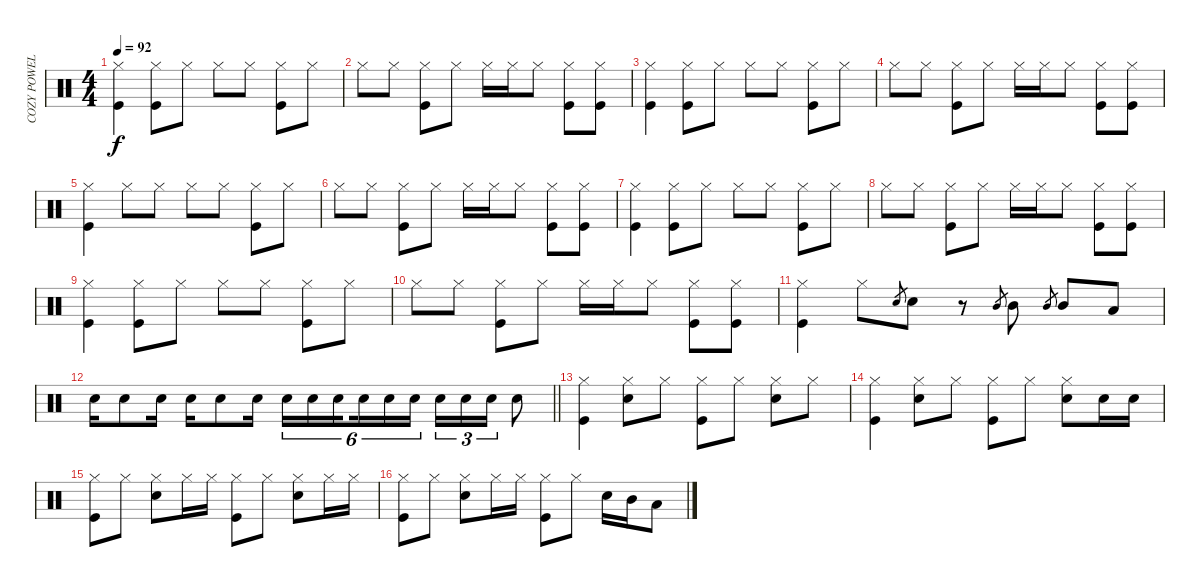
\track ("COZY POWELL" "COZY POWEL") {instrument percussion}
\staff {score}
\articulation defaults
\ts (4 4)
\tempo 92
\clef neutral
\ks c
("Hi-Hat (closed)" "Kick (hit)").4{dy f} ("Hi-Hat (closed)" "Kick (hit)").8 "Hi-Hat (closed)".8 "Hi-Hat (closed)".8 "Hi-Hat (closed)".8 ("Hi-Hat (closed)" "Kick (hit)").8 "Hi-Hat (closed)".8 |
"Hi-Hat (closed)".8 "Hi-Hat (closed)".8 ("Hi-Hat (closed)" "Kick (hit)").8 "Hi-Hat (closed)".8 "Hi-Hat (closed)".16 "Hi-Hat (closed)".16 "Hi-Hat (closed)".8 ("Hi-Hat (closed)" "Kick (hit)").8 ("Hi-Hat (closed)" "Kick (hit)").8 |
("Hi-Hat (closed)" "Kick (hit)").4 ("Hi-Hat (closed)" "Kick (hit)").8 "Hi-Hat (closed)".8 "Hi-Hat (closed)".8 "Hi-Hat (closed)".8 ("Hi-Hat (closed)" "Kick (hit)").8 "Hi-Hat (closed)".8 |
"Hi-Hat (closed)".8 "Hi-Hat (closed)".8 ("Hi-Hat (closed)" "Kick (hit)").8 "Hi-Hat (closed)".8 "Hi-Hat (closed)".16 "Hi-Hat (closed)".16 "Hi-Hat (closed)".8 ("Hi-Hat (closed)" "Kick (hit)").8 ("Hi-Hat (closed)" "Kick (hit)").8 |
("Hi-Hat (closed)" "Kick (hit)").4 "Hi-Hat (closed)".8 "Hi-Hat (closed)".8 "Hi-Hat (closed)".8 "Hi-Hat (closed)".8 ("Hi-Hat (closed)" "Kick (hit)").8 "Hi-Hat (closed)".8 |
"Hi-Hat (closed)".8 "Hi-Hat (closed)".8 ("Hi-Hat (closed)" "Kick (hit)").8 "Hi-Hat (closed)".8 "Hi-Hat (closed)".16 "Hi-Hat (closed)".16 "Hi-Hat (closed)".8 ("Hi-Hat (closed)" "Kick (hit)").8 ("Hi-Hat (closed)" "Kick (hit)").8 |
("Hi-Hat (closed)" "Kick (hit)").4 ("Hi-Hat (closed)" "Kick (hit)").8 "Hi-Hat (closed)".8 "Hi-Hat (closed)".8 "Hi-Hat (closed)".8 ("Hi-Hat (closed)" "Kick (hit)").8 "Hi-Hat (closed)".8 |
"Hi-Hat (closed)".8 "Hi-Hat (closed)".8 ("Hi-Hat (closed)" "Kick (hit)").8 "Hi-Hat (closed)".8 "Hi-Hat (closed)".16 "Hi-Hat (closed)".16 "Hi-Hat (closed)".8 ("Hi-Hat (closed)" "Kick (hit)").8 ("Hi-Hat (closed)" "Kick (hit)").8 |
("Hi-Hat (closed)" "Kick (hit)").4 ("Hi-Hat (closed)" "Kick (hit)").8 "Hi-Hat (closed)".8 "Hi-Hat (closed)".8 "Hi-Hat (closed)".8 ("Hi-Hat (closed)" "Kick (hit)").8 "Hi-Hat (closed)".8 |
"Hi-Hat (closed)".8 "Hi-Hat (closed)".8 ("Hi-Hat (closed)" "Kick (hit)").8 "Hi-Hat (closed)".8 "Hi-Hat (closed)".16 "Hi-Hat (closed)".16 "Hi-Hat (closed)".8 ("Hi-Hat (closed)" "Kick (hit)").8 ("Hi-Hat (closed)" "Kick (hit)").8 |
("Hi-Hat (closed)" "Kick (hit)").4 "Hi-Hat (closed)".8 "Snare (hit) 2".8{gr} "Snare (hit) 2".8 r.8 "Mid Tom (hit)".8{gr} "Mid Tom (hit)".8 "Mid Tom (hit)".8{gr} "Mid Tom (hit)".8 "Low Tom (hit)".8 |
\barLineRight lightlight "Snare (hit) 2".16 "Snare (hit) 2".8 "Snare (hit) 2".16 "Snare (hit) 2".16 "Snare (hit) 2".8 "Snare (hit) 2".16 "Snare (hit) 2".16{tu (6 4)} "Snare (hit) 2".16{tu (6 4)} "Snare (hit) 2".16{tu (6 4) beam splitsecondary} "Snare (hit) 2".16{tu (6 4)} "Snare (hit) 2".16{tu (6 4)} "Snare (hit) 2".16{tu (6 4)} "Snare (hit) 2".16{tu (3 2)} "Snare (hit) 2".16{tu (3 2)} "Snare (hit) 2".16{tu (3 2)} "Snare (hit) 2".8
|
("Hi-Hat (closed)" "Kick (hit)").4 ("Hi-Hat (closed)" "Snare (hit) 2").8 "Hi-Hat (closed)".8 ("Hi-Hat (closed)" "Kick (hit)").8 "Hi-Hat (closed)".8 ("Hi-Hat (closed)" "Snare (hit) 2").8 "Hi-Hat (closed)".8 |
("Hi-Hat (closed)" "Kick (hit)").4 ("Hi-Hat (closed)" "Snare (hit) 2").8 "Hi-Hat (closed)".8 ("Hi-Hat (closed)" "Kick (hit)").8 "Hi-Hat (closed)".8 ("Hi-Hat (closed)" "Snare (hit) 2").8 "Snare (hit) 2".16 "Snare (hit) 2".16 |
("Hi-Hat (closed)" "Kick (hit)").8 "Hi-Hat (closed)".8 ("Hi-Hat (closed)" "Snare (hit) 2").8 "Hi-Hat (closed)".16 "Hi-Hat (closed)".16 ("Hi-Hat (closed)" "Kick (hit)").8 "Hi-Hat (closed)".8 ("Hi-Hat (closed)" "Snare (hit) 2").8 "Hi-Hat (closed)".16 "Hi-Hat (closed)".16 |
("Hi-Hat (closed)" "Kick (hit)").8 "Hi-Hat (closed)".8 ("Hi-Hat (closed)" "Snare (hit) 2").8 "Hi-Hat (closed)".16 "Hi-Hat (closed)".16 ("Hi-Hat (closed)" "Kick (hit)").8 "Hi-Hat (closed)".8 "Snare (hit) 2".16 "Mid Tom (hit)".16 "Low Tom (hit)".8
